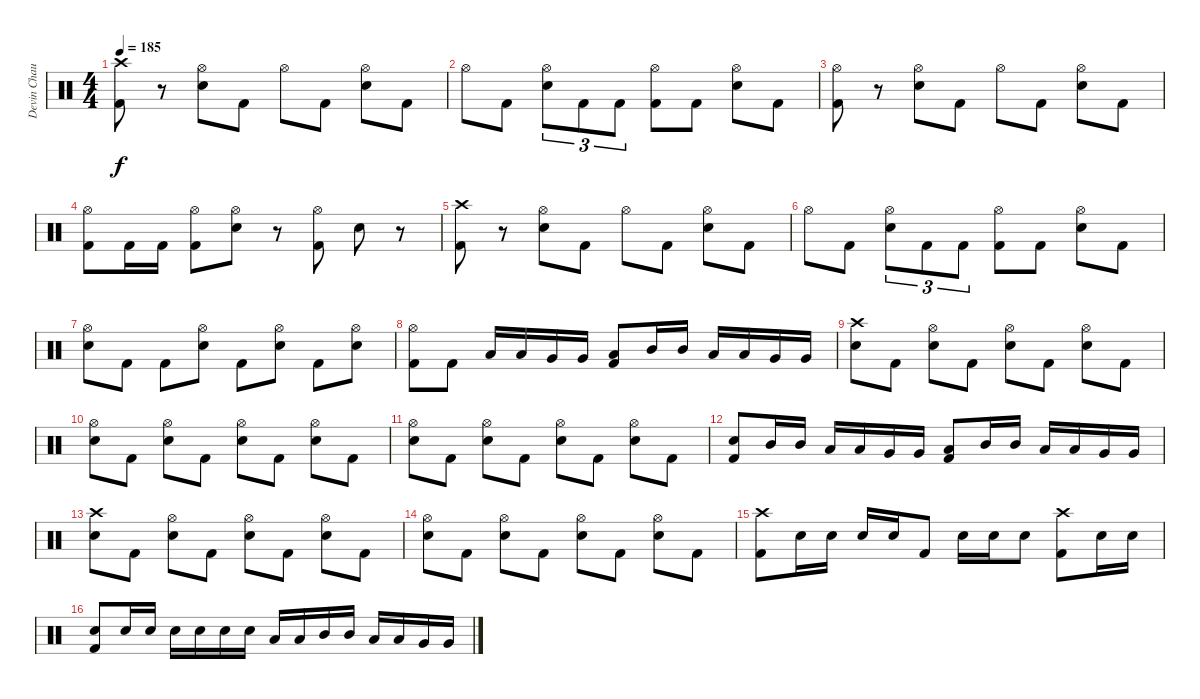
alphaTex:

\track ("Devin Chaulk" "Devin Chau") {instrument percussion}
\staff {score}
\articulation defaults
\ts (4 4)
\tempo 185
\clef neutral
\ks c
("Crash high (hit)" "Kick (hit) 2").8{dy f} r.8 ("Hi-Hat (open)" "Snare (hit) 2").8 "Kick (hit) 2".8 "Hi-Hat (open)".8 "Kick (hit) 2".8 ("Hi-Hat (open)" "Snare (hit) 2").8 "Kick (hit) 2".8 |
"Hi-Hat (open)".8 "Kick (hit) 2".8 ("Hi-Hat (open)" "Snare (hit) 2").8{tu (3 2)} "Kick (hit) 2".8{tu (3 2)} "Kick (hit) 2".8{tu (3 2)} ("Hi-Hat (open)" "Kick (hit) 2").8 "Kick (hit) 2".8 ("Hi-Hat (open)" "Snare (hit) 2").8 "Kick (hit) 2".8 |
("Hi-Hat (open)" "Kick (hit) 2").8 r.8 ("Hi-Hat (open)" "Snare (hit) 2").8 "Kick (hit) 2".8 "Hi-Hat (open)".8 "Kick (hit) 2".8 ("Hi-Hat (open)" "Snare (hit) 2").8 "Kick (hit) 2".8 |
("Hi-Hat (open)" "Kick (hit) 2").8 "Kick (hit) 2".16 "Kick (hit) 2".16 ("Hi-Hat (open)" "Kick (hit) 2").8 ("Hi-Hat (open)" "Snare (hit) 2").8 r.8 ("Hi-Hat (open)" "Kick (hit) 2").8 "Snare (hit) 2".8 r.8 |
("Crash high (hit)" "Kick (hit) 2").8 r.8 ("Hi-Hat (open)" "Snare (hit) 2").8 "Kick (hit) 2".8 "Hi-Hat (open)".8 "Kick (hit) 2".8 ("Hi-Hat (open)" "Snare (hit) 2").8 "Kick (hit) 2".8 |
"Hi-Hat (open)".8 "Kick (hit) 2".8 ("Hi-Hat (open)" "Snare (hit) 2").8{tu (3 2)} "Kick (hit) 2".8{tu (3 2)} "Kick (hit) 2".8{tu (3 2)} ("Hi-Hat (open)" "Kick (hit) 2").8 "Kick (hit) 2".8 ("Hi-Hat (open)" "Snare (hit) 2").8 "Kick (hit) 2".8 |
("Hi-Hat (open)" "Snare (hit) 2").8 "Kick (hit) 2".8 "Kick (hit) 2".8 ("Hi-Hat (open)" "Snare (hit) 2").8 "Kick (hit) 2".8 ("Hi-Hat (open)" "Snare (hit) 2").8 "Kick (hit) 2".8 ("Hi-Hat (open)" "Snare (hit) 2").8 |
("Hi-Hat (open)" "Kick (hit) 2").8 "Kick (hit) 2".8 "Low Tom (hit)".16 "Low Tom (hit)".16 "Very Low Tom (hit)".16 "Very Low Tom (hit)".16 ("Low Tom (hit)" "Kick (hit) 2").8 "Mid Tom (hit)".16 "Mid Tom (hit)".16 "Low Tom (hit)".16 "Low Tom (hit)".16 "Very Low Tom (hit)".16 "Very Low Tom (hit)".16 |
("Crash high (hit)" "Snare (hit) 2").8 "Kick (hit) 2".8 ("Hi-Hat (open)" "Snare (hit) 2").8 "Kick (hit) 2".8 ("Hi-Hat (open)" "Snare (hit) 2").8 "Kick (hit) 2".8 ("Hi-Hat (open)" "Snare (hit) 2").8 "Kick (hit) 2".8 |
("Hi-Hat (open)" "Snare (hit) 2").8 "Kick (hit) 2".8 ("Hi-Hat (open)" "Snare (hit) 2").8 "Kick (hit) 2".8 ("Hi-Hat (open)" "Snare (hit) 2").8 "Kick (hit) 2".8 ("Hi-Hat (open)" "Snare (hit) 2").8 "Kick (hit) 2".8 |
("Hi-Hat (open)" "Snare (hit) 2").8 "Kick (hit) 2".8 ("Hi-Hat (open)" "Snare (hit) 2").8 "Kick (hit) 2".8 ("Hi-Hat (open)" "Snare (hit) 2").8 "Kick (hit) 2".8 ("Hi-Hat (open)" "Snare (hit) 2").8 "Kick (hit) 2".8 |
("Snare (hit) 2" "Kick (hit) 2").8 "Mid Tom (hit)".16 "Mid Tom (hit)".16 "Low Tom (hit)".16 "Low Tom (hit)".16 "Very Low Tom (hit)".16 "Very Low Tom (hit)".16 ("Low Tom (hit)" "Kick (hit) 2").8 "Mid Tom (hit)".16 "Mid Tom (hit)".16 "Low Tom (hit)".16 "Low Tom (hit)".16 "Very Low Tom (hit)".16 "Very Low Tom (hit)".16 |
("Crash high (hit)" "Snare (hit) 2").8 "Kick (hit) 2".8 ("Hi-Hat (open)" "Snare (hit) 2").8 "Kick (hit) 2".8 ("Hi-Hat (open)" "Snare (hit) 2").8 "Kick (hit) 2".8 ("Hi-Hat (open)" "Snare (hit) 2").8 "Kick (hit) 2".8 |
("Hi-Hat (open)" "Snare (hit) 2").8 "Kick (hit) 2".8 ("Hi-Hat (open)" "Snare (hit) 2").8 "Kick (hit) 2".8 ("Hi-Hat (open)" "Snare (hit) 2").8 "Kick (hit) 2".8 ("Hi-Hat (open)" "Snare (hit) 2").8 "Kick (hit) 2".8 |
("Crash high (hit)" "Kick (hit) 2").8 "Snare (hit) 2".16 "Snare (hit) 2".16 "Snare (hit) 2".16 "Snare (hit) 2".16 "Kick (hit) 2".8 "Snare (hit) 2".16 "Snare (hit) 2".16 "Snare (hit) 2".8 ("Crash high (hit)" "Kick (hit) 2").8 "Snare (hit) 2".16 "Snare (hit) 2".16 |
("Snare (hit) 2" "Kick (hit) 2").8 "Snare (hit) 2".16 "Snare (hit) 2".16 "Snare (hit) 2".16 "Snare (hit) 2".16 "Snare (hit) 2".16 "Snare (hit) 2".16 "Low Tom (hit)".16 "Low Tom (hit)".16 "Mid Tom (hit)".16 "Mid Tom (hit)".16 "Low Tom (hit)".16 "Low Tom (hit)".16 "Very Low Tom (hit)".16 "Very Low Tom (hit)".16
